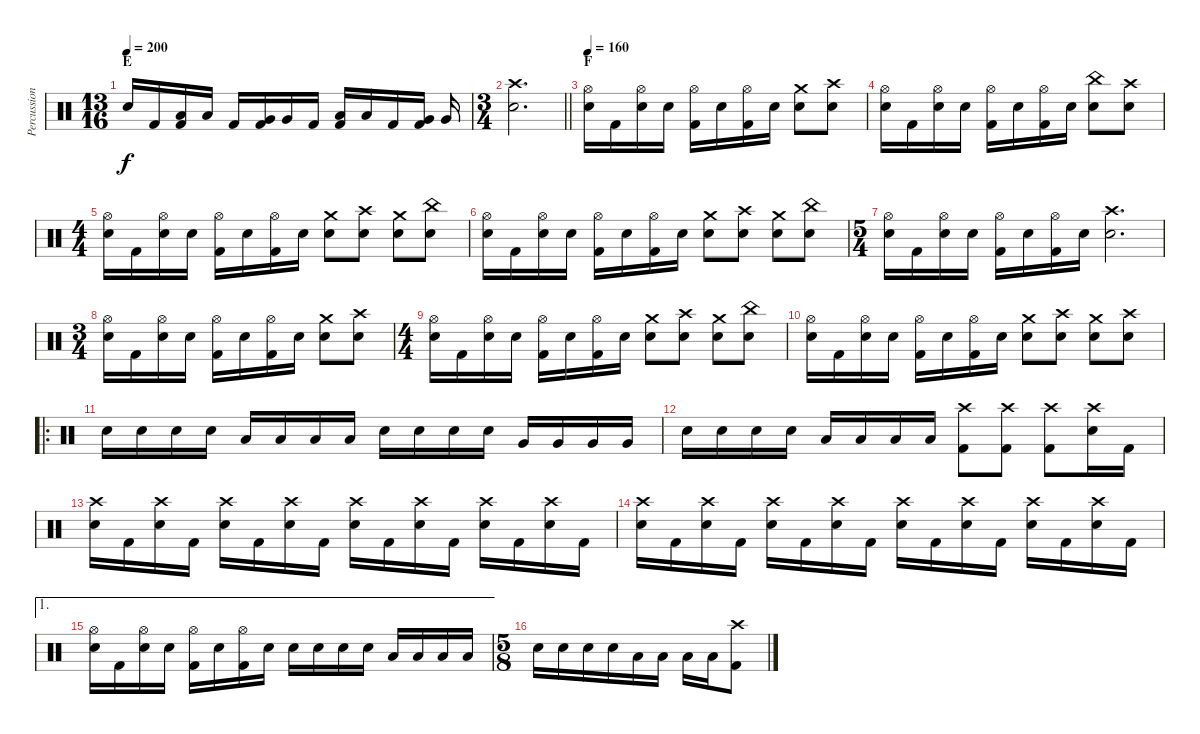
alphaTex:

\track ("Percussion" "Percussion") {instrument percussion}
\staff {score}
\articulation defaults
\ts (13 16)
\section ("" "E")
\tempo 200
\clef neutral
\ks c "Electric Snare (hit)".16{dy f} "Kick (hit) 2".16
("Low Tom (hit)" "Kick (hit) 2").16 "Low Tom (hit)".16 "Kick (hit) 2".16 ("Very Low Tom (hit)" "Kick (hit) 2").16 "Very Low Tom (hit)".16 "Kick (hit) 2".16 ("Low Tom (hit)" "Kick (hit) 2").16 "Low Tom (hit)".16 "Kick (hit) 2".16 ("Very Low Tom (hit)" "Kick (hit) 2").16 "Very Low Tom (hit)".16 |
\ts (3 4)
\barLineRight lightlight
("Crash high (hit)" "Electric Snare (hit)").2{d} |
\section ("" "F")
\tempo 160
("Hi-Hat (open)" "Electric Snare (hit)").16 "Kick (hit) 2".16 ("Hi-Hat (open)" "Electric Snare (hit)").16 "Electric Snare (hit)".16 ("Hi-Hat (open)" "Kick (hit) 2").16 "Electric Snare (hit)".16 ("Hi-Hat (open)" "Kick (hit) 2").16 "Electric Snare (hit)".16 ("Crash medium (hit)" "Electric Snare (hit)").8 ("Crash high (hit)" "Electric Snare (hit)").8 |
("Hi-Hat (open)" "Electric Snare (hit)").16 "Kick (hit) 2".16 ("Hi-Hat (open)" "Electric Snare (hit)").16 "Electric Snare (hit)".16 ("Hi-Hat (open)" "Kick (hit) 2").16 "Electric Snare (hit)".16 ("Hi-Hat (open)" "Kick (hit) 2").16 "Electric Snare (hit)".16 ("China (hit)" "Electric Snare (hit)").8 ("Crash high (hit)" "Electric Snare (hit)").8 |
\ts (4 4)
("Hi-Hat (open)" "Electric Snare (hit)").16 "Kick (hit) 2".16 ("Hi-Hat (open)" "Electric Snare (hit)").16 "Electric Snare (hit)".16 ("Hi-Hat (open)" "Kick (hit) 2").16 "Electric Snare (hit)".16 ("Hi-Hat (open)" "Kick (hit) 2").16 "Electric Snare (hit)".16 ("Crash medium (hit)" "Electric Snare (hit)").8 ("Crash high (hit)" "Electric Snare (hit)").8 ("Crash medium (hit)" "Electric Snare (hit)").8 ("China (hit)" "Electric Snare (hit)").8 |
("Hi-Hat (open)" "Electric Snare (hit)").16 "Kick (hit) 2".16 ("Hi-Hat (open)" "Electric Snare (hit)").16 "Electric Snare (hit)".16 ("Hi-Hat (open)" "Kick (hit) 2").16 "Electric Snare (hit)".16 ("Hi-Hat (open)" "Kick (hit) 2").16 "Electric Snare (hit)".16 ("Crash medium (hit)" "Electric Snare (hit)").8 ("Crash high (hit)" "Electric Snare (hit)").8 ("Crash medium (hit)" "Electric Snare (hit)").8 ("China (hit)" "Electric Snare (hit)").8 |
\ts (5 4)
("Hi-Hat (open)" "Electric Snare (hit)").16 "Kick (hit) 2".16 ("Hi-Hat (open)" "Electric Snare (hit)").16 "Electric Snare (hit)".16 ("Hi-Hat (open)" "Kick (hit) 2").16 "Electric Snare (hit)".16 ("Hi-Hat (open)" "Kick (hit) 2").16 "Electric Snare (hit)".16 ("Crash high (hit)" "Electric Snare (hit)").2{d} |
\ts (3 4)
("Hi-Hat (open)" "Electric Snare (hit)").16 "Kick (hit) 2".16 ("Hi-Hat (open)" "Electric Snare (hit)").16 "Electric Snare (hit)".16 ("Hi-Hat (open)" "Kick (hit) 2").16 "Electric Snare (hit)".16 ("Hi-Hat (open)" "Kick (hit) 2").16 "Electric Snare (hit)".16 ("Crash medium (hit)" "Electric Snare (hit)").8 ("Crash high (hit)" "Electric Snare (hit)").8 |
\ts (4 4)
("Hi-Hat (open)" "Electric Snare (hit)").16 "Kick (hit) 2".16 ("Hi-Hat (open)" "Electric Snare (hit)").16 "Electric Snare (hit)".16 ("Hi-Hat (open)" "Kick (hit) 2").16 "Electric Snare (hit)".16 ("Hi-Hat (open)" "Kick (hit) 2").16 "Electric Snare (hit)".16 ("Crash medium (hit)" "Electric Snare (hit)").8 ("Crash high (hit)" "Electric Snare (hit)").8 ("Crash medium (hit)" "Electric Snare (hit)").8 ("China (hit)" "Electric Snare (hit)").8 |
("Hi-Hat (open)" "Electric Snare (hit)").16 "Kick (hit) 2".16 ("Hi-Hat (open)" "Electric Snare (hit)").16 "Electric Snare (hit)".16 ("Hi-Hat (open)" "Kick (hit) 2").16 "Electric Snare (hit)".16 ("Hi-Hat (open)" "Kick (hit) 2").16 "Electric Snare (hit)".16 ("Crash medium (hit)" "Electric Snare (hit)").8 ("Crash high (hit)" "Electric Snare (hit)").8 ("Crash medium (hit)" "Electric Snare (hit)").8 ("Crash high (hit)" "Electric Snare (hit)").8 |
\ro "Electric Snare (hit)".16 "Electric Snare (hit)".16 "Electric Snare (hit)".16 "Electric Snare (hit)".16 "Low Tom (hit)".16 "Low Tom (hit)".16 "Low Tom (hit)".16 "Low Tom (hit)".16 "Electric Snare (hit)".16 "Electric Snare (hit)".16 "Electric Snare (hit)".16 "Electric Snare (hit)".16 "Very Low Tom (hit)".16 "Very Low Tom (hit)".16 "Very Low Tom (hit)".16 "Very Low Tom (hit)".16
|
"Electric Snare (hit)".16 "Electric Snare (hit)".16 "Electric Snare (hit)".16 "Electric Snare (hit)".16 "Low Tom (hit)".16 "Low Tom (hit)".16 "Low Tom (hit)".16 "Low Tom (hit)".16 ("Crash high (hit)" "Kick (hit) 2").8 ("Crash high (hit)" "Kick (hit) 2").8 ("Crash high (hit)" "Kick (hit) 2").8 ("Crash high (hit)" "Electric Snare (hit)").16 "Kick (hit) 2".16 |
("Crash high (hit)" "Electric Snare (hit)").16 "Kick (hit) 2".16 ("Crash high (hit)" "Electric Snare (hit)").16 "Kick (hit) 2".16 ("Crash high (hit)" "Electric Snare (hit)").16 "Kick (hit) 2".16 ("Crash high (hit)" "Electric Snare (hit)").16 "Kick (hit) 2".16 ("Crash high (hit)" "Electric Snare (hit)").16 "Kick (hit) 2".16 ("Crash high (hit)" "Electric Snare (hit)").16 "Kick (hit) 2".16 ("Crash high (hit)" "Electric Snare (hit)").16 "Kick (hit) 2".16 ("Crash high (hit)" "Electric Snare (hit)").16 "Kick (hit) 2".16 |
("Crash high (hit)" "Electric Snare (hit)").16 "Kick (hit) 2".16 ("Crash high (hit)" "Electric Snare (hit)").16 "Kick (hit) 2".16 ("Crash high (hit)" "Electric Snare (hit)").16 "Kick (hit) 2".16 ("Crash high (hit)" "Electric Snare (hit)").16 "Kick (hit) 2".16 ("Crash high (hit)" "Electric Snare (hit)").16 "Kick (hit) 2".16 ("Crash high (hit)" "Electric Snare (hit)").16 "Kick (hit) 2".16 ("Crash high (hit)" "Electric Snare (hit)").16 "Kick (hit) 2".16 ("Crash high (hit)" "Electric Snare (hit)").16 "Kick (hit) 2".16 |
\ae 1
("Hi-Hat (open)" "Electric Snare (hit)").16 "Kick (hit) 2".16 ("Hi-Hat (open)" "Electric Snare (hit)").16 "Electric Snare (hit)".16 ("Hi-Hat (open)" "Kick (hit) 2").16 "Electric Snare (hit)".16 ("Hi-Hat (open)" "Kick (hit) 2").16 "Electric Snare (hit)".16 "Electric Snare (hit)".16 "Electric Snare (hit)".16 "Electric Snare (hit)".16 "Electric Snare (hit)".16 "Low Tom (hit)".16 "Low Tom (hit)".16 "Low Tom (hit)".16 "Low Tom (hit)".16 |
\ts (5 8)
"Electric Snare (hit)".16 "Electric Snare (hit)".16 "Electric Snare (hit)".16 "Electric Snare (hit)".16 "Low Tom (hit)".16 "Low Tom (hit)".16 "Low Tom (hit)".16 "Low Tom (hit)".16 ("Crash high (hit)" "Kick (hit) 2").8
